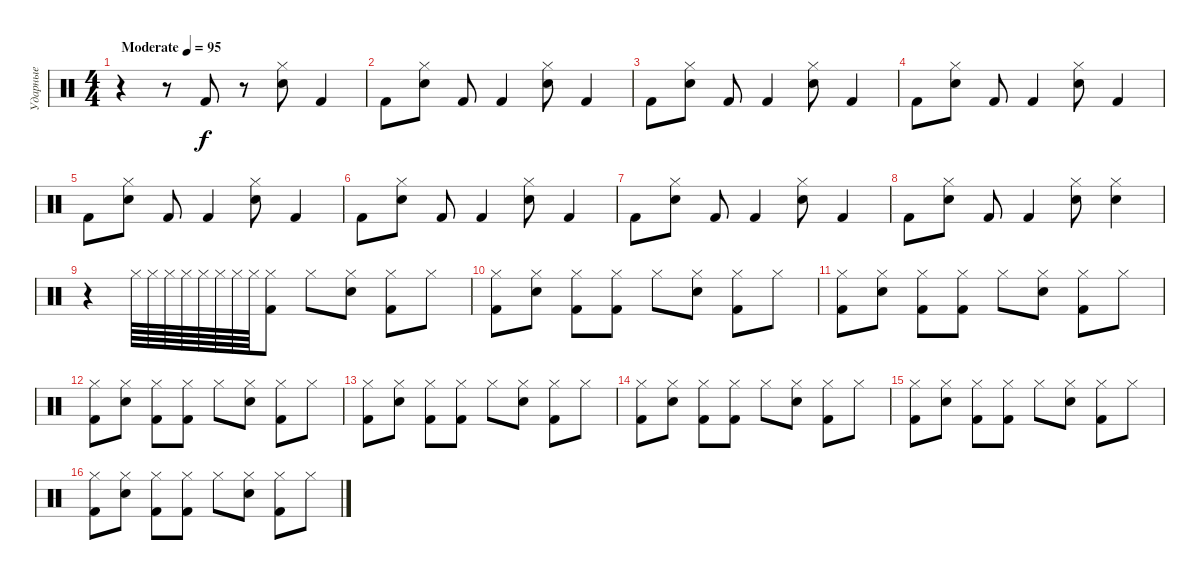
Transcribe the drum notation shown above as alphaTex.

\track ("Ударные" "Ударные") {instrument percussion}
\staff {score}
\articulation defaults
\ts (4 4)
\tempo (95 "Moderate")
\clef neutral
\ks c
r.4{dy f} r.8 "Kick (hit) 2".8 r.8 ("Electric Snare (hit)" "Hi-Hat (closed)").8 "Kick (hit) 2".4 |
"Kick (hit) 2".8 ("Electric Snare (hit)" "Hi-Hat (closed)").8 "Kick (hit) 2".8 "Kick (hit) 2".4 ("Electric Snare (hit)" "Hi-Hat (closed)").8 "Kick (hit) 2".4 |
"Kick (hit) 2".8 ("Electric Snare (hit)" "Hi-Hat (closed)").8 "Kick (hit) 2".8 "Kick (hit) 2".4 ("Electric Snare (hit)" "Hi-Hat (closed)").8 "Kick (hit) 2".4 |
"Kick (hit) 2".8 ("Electric Snare (hit)" "Hi-Hat (closed)").8 "Kick (hit) 2".8 "Kick (hit) 2".4 ("Electric Snare (hit)" "Hi-Hat (closed)").8 "Kick (hit) 2".4 |
"Kick (hit) 2".8 ("Electric Snare (hit)" "Hi-Hat (closed)").8 "Kick (hit) 2".8 "Kick (hit) 2".4 ("Electric Snare (hit)" "Hi-Hat (closed)").8 "Kick (hit) 2".4 |
"Kick (hit) 2".8 ("Electric Snare (hit)" "Hi-Hat (closed)").8 "Kick (hit) 2".8 "Kick (hit) 2".4 ("Electric Snare (hit)" "Hi-Hat (closed)").8 "Kick (hit) 2".4 |
"Kick (hit) 2".8 ("Electric Snare (hit)" "Hi-Hat (closed)").8 "Kick (hit) 2".8 "Kick (hit) 2".4 ("Electric Snare (hit)" "Hi-Hat (closed)").8 "Kick (hit) 2".4 |
"Kick (hit) 2".8 ("Electric Snare (hit)" "Hi-Hat (closed)").8 "Kick (hit) 2".8 "Kick (hit) 2".4 ("Electric Snare (hit)" "Hi-Hat (closed)").8 ("Electric Snare (hit)" "Hi-Hat (closed)").4 |
r.4 "Hi-Hat (closed)".64 "Hi-Hat (closed)".64 "Hi-Hat (closed)".64 "Hi-Hat (closed)".64 "Hi-Hat (closed)".64 "Hi-Hat (closed)".64 "Hi-Hat (closed)".64 "Hi-Hat (closed)".64 ("Kick (hit) 2" "Hi-Hat (closed)").8 "Hi-Hat (closed)".8 ("Electric Snare (hit)" "Hi-Hat (closed)").8 ("Kick (hit) 2" "Hi-Hat (closed)").8 "Hi-Hat (closed)".8 |
("Kick (hit) 2" "Hi-Hat (closed)").8 ("Electric Snare (hit)" "Hi-Hat (closed)").8 ("Kick (hit) 2" "Hi-Hat (closed)").8 ("Kick (hit) 2" "Hi-Hat (closed)").8 "Hi-Hat (closed)".8 ("Electric Snare (hit)" "Hi-Hat (closed)").8 ("Kick (hit) 2" "Hi-Hat (closed)").8 "Hi-Hat (closed)".8 |
("Kick (hit) 2" "Hi-Hat (closed)").8 ("Electric Snare (hit)" "Hi-Hat (closed)").8 ("Kick (hit) 2" "Hi-Hat (closed)").8 ("Kick (hit) 2" "Hi-Hat (closed)").8 "Hi-Hat (closed)".8 ("Electric Snare (hit)" "Hi-Hat (closed)").8 ("Kick (hit) 2" "Hi-Hat (closed)").8 "Hi-Hat (closed)".8 |
("Kick (hit) 2" "Hi-Hat (closed)").8 ("Electric Snare (hit)" "Hi-Hat (closed)").8 ("Kick (hit) 2" "Hi-Hat (closed)").8 ("Kick (hit) 2" "Hi-Hat (closed)").8 "Hi-Hat (closed)".8 ("Electric Snare (hit)" "Hi-Hat (closed)").8 ("Kick (hit) 2" "Hi-Hat (closed)").8 "Hi-Hat (closed)".8 |
("Kick (hit) 2" "Hi-Hat (closed)").8 ("Electric Snare (hit)" "Hi-Hat (closed)").8 ("Kick (hit) 2" "Hi-Hat (closed)").8 ("Kick (hit) 2" "Hi-Hat (closed)").8 "Hi-Hat (closed)".8 ("Electric Snare (hit)" "Hi-Hat (closed)").8 ("Kick (hit) 2" "Hi-Hat (closed)").8 "Hi-Hat (closed)".8 |
("Kick (hit) 2" "Hi-Hat (closed)").8 ("Electric Snare (hit)" "Hi-Hat (closed)").8 ("Kick (hit) 2" "Hi-Hat (closed)").8 ("Kick (hit) 2" "Hi-Hat (closed)").8 "Hi-Hat (closed)".8 ("Electric Snare (hit)" "Hi-Hat (closed)").8 ("Kick (hit) 2" "Hi-Hat (closed)").8 "Hi-Hat (closed)".8 |
("Kick (hit) 2" "Hi-Hat (closed)").8 ("Electric Snare (hit)" "Hi-Hat (closed)").8 ("Kick (hit) 2" "Hi-Hat (closed)").8 ("Kick (hit) 2" "Hi-Hat (closed)").8 "Hi-Hat (closed)".8 ("Electric Snare (hit)" "Hi-Hat (closed)").8 ("Kick (hit) 2" "Hi-Hat (closed)").8 "Hi-Hat (closed)".8 |
("Kick (hit) 2" "Hi-Hat (closed)").8 ("Electric Snare (hit)" "Hi-Hat (closed)").8 ("Kick (hit) 2" "Hi-Hat (closed)").8 ("Kick (hit) 2" "Hi-Hat (closed)").8 "Hi-Hat (closed)".8 ("Electric Snare (hit)" "Hi-Hat (closed)").8 ("Kick (hit) 2" "Hi-Hat (closed)").8 "Hi-Hat (closed)".8
